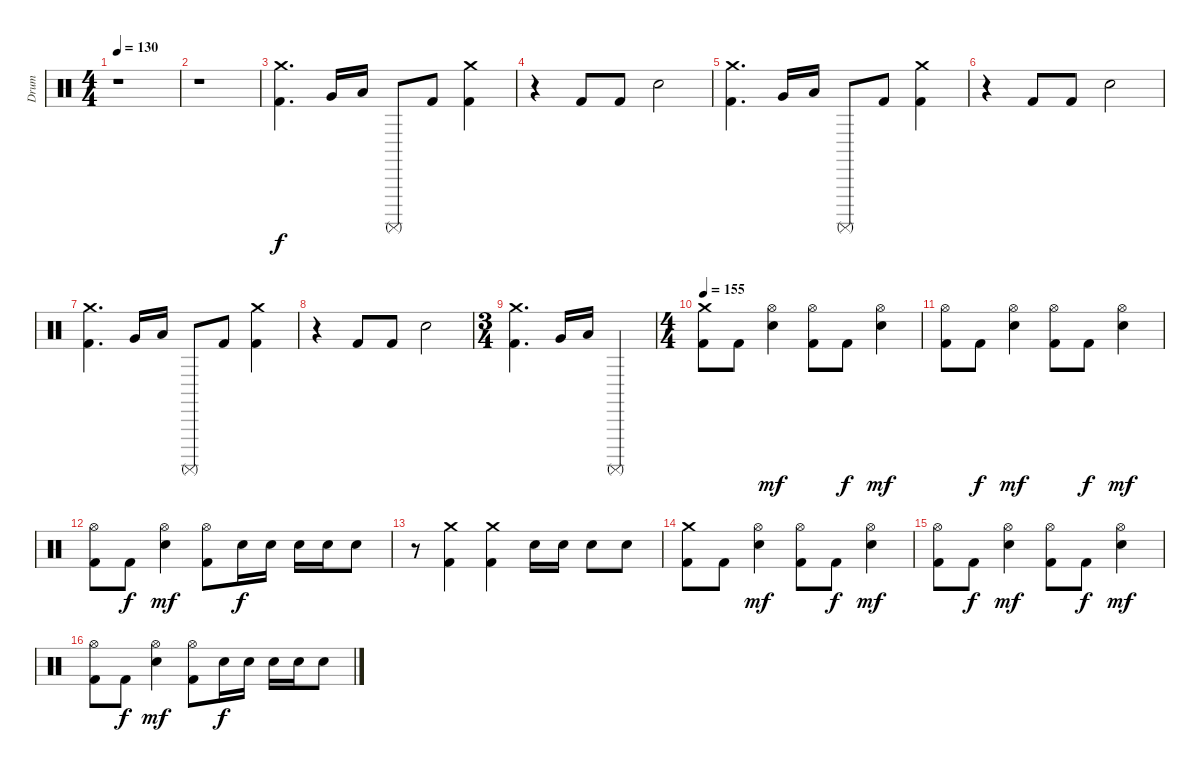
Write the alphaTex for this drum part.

\track ("Drum" "Drum") {instrument percussion}
\staff {score}
\articulation defaults
\ts (4 4)
\tempo 130
\clef neutral
\ks c
r.1{dy f} |
r.1 |
("Crash medium (hit)" "Kick (hit) 2").4{d} "Very Low Tom (hit)".16 "Low Floor Tom (hit)".16 "Surdo (mute)".8 "Kick (hit) 2".8 ("Crash medium (hit)" "Kick (hit) 2").4 |
r.4 "Kick (hit) 2".8 "Kick (hit) 2".8 "Snare (hit) 2".2 |
("Crash medium (hit)" "Kick (hit) 2").4{d} "Very Low Tom (hit)".16 "Low Floor Tom (hit)".16 "Surdo (mute)".8 "Kick (hit) 2".8 ("Crash medium (hit)" "Kick (hit) 2").4 |
r.4 "Kick (hit) 2".8 "Kick (hit) 2".8 "Snare (hit) 2".2 |
("Crash medium (hit)" "Kick (hit) 2").4{d} "Very Low Tom (hit)".16 "Low Floor Tom (hit)".16 "Surdo (mute)".8 "Kick (hit) 2".8 ("Crash medium (hit)" "Kick (hit) 2").4 |
r.4 "Kick (hit) 2".8 "Kick (hit) 2".8 "Snare (hit) 2".2 |
\ts (3 4)
("Crash medium (hit)" "Kick (hit) 2").4{d} "Very Low Tom (hit)".16 "Low Floor Tom (hit)".16 "Surdo (mute)".4 |
\ts (4 4)
\tempo 155
("Crash medium (hit)" "Kick (hit) 2").8 "Kick (hit) 2".8 ("Hi-Hat (open)" "Snare (hit) 2").4{dy mf} ("Hi-Hat (open)" "Kick (hit) 2").8 "Kick (hit) 2".8{dy f} ("Hi-Hat (open)" "Snare (hit) 2").4{dy mf} |
("Hi-Hat (open)" "Kick (hit) 2").8 "Kick (hit) 2".8{dy f} ("Hi-Hat (open)" "Snare (hit) 2").4{dy mf} ("Hi-Hat (open)" "Kick (hit) 2").8 "Kick (hit) 2".8{dy f} ("Hi-Hat (open)" "Snare (hit) 2").4{dy mf} |
("Hi-Hat (open)" "Kick (hit) 2").8 "Kick (hit) 2".8{dy f} ("Hi-Hat (open)" "Snare (hit) 2").4{dy mf} ("Hi-Hat (open)" "Kick (hit) 2").8 "Snare (hit) 2".16{dy f} "Snare (hit) 2".16 "Snare (hit) 2".16 "Snare (hit) 2".16 "Snare (hit) 2".8 |
r.8 ("Crash medium (hit)" "Kick (hit) 2").4 ("Crash medium (hit)" "Kick (hit) 2").4 "Snare (hit) 2".16 "Snare (hit) 2".16 "Snare (hit) 2".8 "Snare (hit) 2".8 |
("Crash medium (hit)" "Kick (hit) 2").8 "Kick (hit) 2".8 ("Hi-Hat (open)" "Snare (hit) 2").4{dy mf} ("Hi-Hat (open)" "Kick (hit) 2").8 "Kick (hit) 2".8{dy f} ("Hi-Hat (open)" "Snare (hit) 2").4{dy mf} |
("Hi-Hat (open)" "Kick (hit) 2").8 "Kick (hit) 2".8{dy f} ("Hi-Hat (open)" "Snare (hit) 2").4{dy mf} ("Hi-Hat (open)" "Kick (hit) 2").8 "Kick (hit) 2".8{dy f} ("Hi-Hat (open)" "Snare (hit) 2").4{dy mf} |
("Hi-Hat (open)" "Kick (hit) 2").8 "Kick (hit) 2".8{dy f} ("Hi-Hat (open)" "Snare (hit) 2").4{dy mf} ("Hi-Hat (open)" "Kick (hit) 2").8 "Snare (hit) 2".16{dy f} "Snare (hit) 2".16 "Snare (hit) 2".16 "Snare (hit) 2".16 "Snare (hit) 2".8
